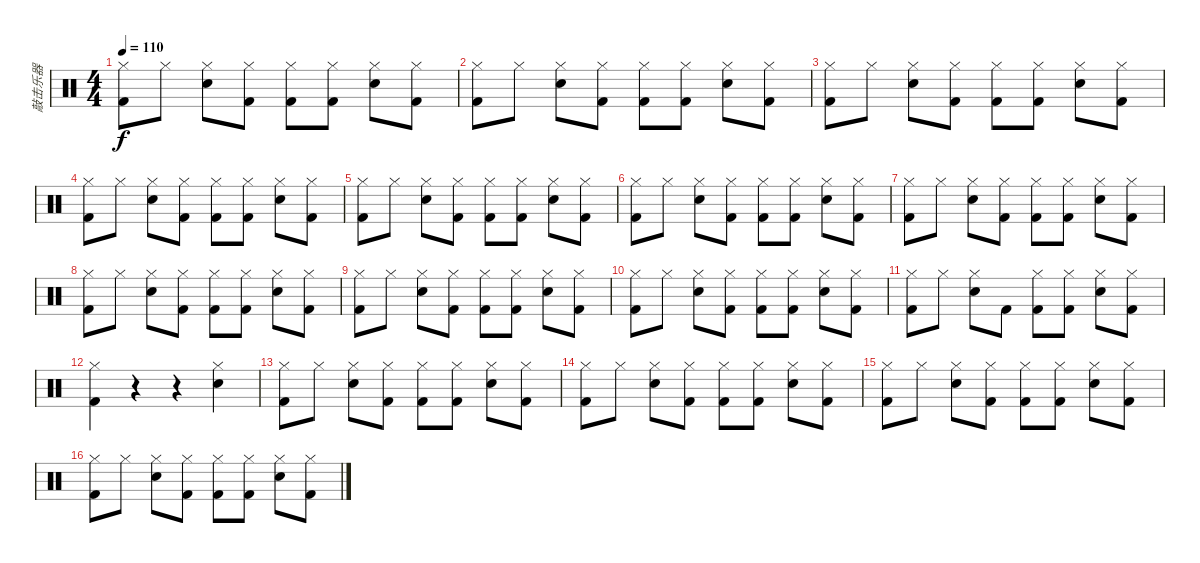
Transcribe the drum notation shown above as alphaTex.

\track ("敲击乐器" "敲击乐器") {instrument percussion}
\staff {score}
\articulation defaults
\ts (4 4)
\tempo 110
\clef neutral
\ks c
("Hi-Hat (closed)" "Kick (hit) 2").8{dy f} "Hi-Hat (closed)".8 ("Electric Snare (hit)" "Hi-Hat (closed)").8 ("Hi-Hat (closed)" "Kick (hit) 2").8 ("Kick (hit) 2" "Hi-Hat (closed)").8 ("Kick (hit) 2" "Hi-Hat (closed)").8 ("Electric Snare (hit)" "Hi-Hat (closed)").8 ("Hi-Hat (closed)" "Kick (hit) 2").8 |
("Hi-Hat (closed)" "Kick (hit) 2").8 "Hi-Hat (closed)".8 ("Hi-Hat (closed)" "Electric Snare (hit)").8 ("Kick (hit) 2" "Hi-Hat (closed)").8 ("Kick (hit) 2" "Hi-Hat (closed)").8 ("Kick (hit) 2" "Hi-Hat (closed)").8 ("Hi-Hat (closed)" "Electric Snare (hit)").8 ("Kick (hit) 2" "Hi-Hat (closed)").8 |
("Hi-Hat (closed)" "Kick (hit) 2").8 "Hi-Hat (closed)".8 ("Electric Snare (hit)" "Hi-Hat (closed)").8 ("Hi-Hat (closed)" "Kick (hit) 2").8 ("Kick (hit) 2" "Hi-Hat (closed)").8 ("Kick (hit) 2" "Hi-Hat (closed)").8 ("Electric Snare (hit)" "Hi-Hat (closed)").8 ("Hi-Hat (closed)" "Kick (hit) 2").8 |
("Hi-Hat (closed)" "Kick (hit) 2").8 "Hi-Hat (closed)".8 ("Hi-Hat (closed)" "Electric Snare (hit)").8 ("Kick (hit) 2" "Hi-Hat (closed)").8 ("Hi-Hat (closed)" "Kick (hit) 2").8 ("Kick (hit) 2" "Hi-Hat (closed)").8 ("Hi-Hat (closed)" "Electric Snare (hit)").8 ("Kick (hit) 2" "Hi-Hat (closed)").8 |
("Hi-Hat (closed)" "Kick (hit) 2").8 "Hi-Hat (closed)".8 ("Electric Snare (hit)" "Hi-Hat (closed)").8 ("Hi-Hat (closed)" "Kick (hit) 2").8 ("Kick (hit) 2" "Hi-Hat (closed)").8 ("Hi-Hat (closed)" "Kick (hit) 2").8 ("Electric Snare (hit)" "Hi-Hat (closed)").8 ("Hi-Hat (closed)" "Kick (hit) 2").8 |
("Kick (hit) 2" "Hi-Hat (closed)").8 "Hi-Hat (closed)".8 ("Hi-Hat (closed)" "Electric Snare (hit)").8 ("Kick (hit) 2" "Hi-Hat (closed)").8 ("Hi-Hat (closed)" "Kick (hit) 2").8 ("Kick (hit) 2" "Hi-Hat (closed)").8 ("Hi-Hat (closed)" "Electric Snare (hit)").8 ("Kick (hit) 2" "Hi-Hat (closed)").8 |
("Hi-Hat (closed)" "Kick (hit) 2").8 "Hi-Hat (closed)".8 ("Electric Snare (hit)" "Hi-Hat (closed)").8 ("Hi-Hat (closed)" "Kick (hit) 2").8 ("Kick (hit) 2" "Hi-Hat (closed)").8 ("Kick (hit) 2" "Hi-Hat (closed)").8 ("Electric Snare (hit)" "Hi-Hat (closed)").8 ("Hi-Hat (closed)" "Kick (hit) 2").8 |
("Hi-Hat (closed)" "Kick (hit) 2").8 "Hi-Hat (closed)".8 ("Electric Snare (hit)" "Hi-Hat (closed)").8 ("Hi-Hat (closed)" "Kick (hit) 2").8 ("Kick (hit) 2" "Hi-Hat (closed)").8 ("Hi-Hat (closed)" "Kick (hit) 2").8 ("Electric Snare (hit)" "Hi-Hat (closed)").8 ("Hi-Hat (closed)" "Kick (hit) 2").8 |
("Kick (hit) 2" "Hi-Hat (closed)").8 "Hi-Hat (closed)".8 ("Hi-Hat (closed)" "Electric Snare (hit)").8 ("Kick (hit) 2" "Hi-Hat (closed)").8 ("Hi-Hat (closed)" "Kick (hit) 2").8 ("Hi-Hat (closed)" "Kick (hit) 2").8 ("Hi-Hat (closed)" "Electric Snare (hit)").8 ("Kick (hit) 2" "Hi-Hat (closed)").8 |
("Hi-Hat (closed)" "Kick (hit) 2").8 "Hi-Hat (closed)".8 ("Hi-Hat (closed)" "Electric Snare (hit)").8 ("Kick (hit) 2" "Hi-Hat (closed)").8 ("Hi-Hat (closed)" "Kick (hit) 2").8 ("Kick (hit) 2" "Hi-Hat (closed)").8 ("Hi-Hat (closed)" "Electric Snare (hit)").8 ("Kick (hit) 2" "Hi-Hat (closed)").8 |
("Hi-Hat (closed)" "Kick (hit) 2").8 "Hi-Hat (closed)".8 ("Electric Snare (hit)" "Hi-Hat (closed)").8 "Kick (hit) 2".8 ("Kick (hit) 2" "Hi-Hat (closed)").8 ("Hi-Hat (closed)" "Kick (hit) 2").8 ("Hi-Hat (closed)" "Electric Snare (hit)").8 ("Kick (hit) 2" "Hi-Hat (closed)").8 |
("Hi-Hat (closed)" "Kick (hit) 2").4 r.4 r.4 ("Hi-Hat (closed)" "Electric Snare (hit)").4 |
("Hi-Hat (closed)" "Kick (hit) 2").8 "Hi-Hat (closed)".8 ("Electric Snare (hit)" "Hi-Hat (closed)").8 ("Hi-Hat (closed)" "Kick (hit) 2").8 ("Hi-Hat (closed)" "Kick (hit) 2").8 ("Hi-Hat (closed)" "Kick (hit) 2").8 ("Electric Snare (hit)" "Hi-Hat (closed)").8 ("Hi-Hat (closed)" "Kick (hit) 2").8 |
("Kick (hit) 2" "Hi-Hat (closed)").8 "Hi-Hat (closed)".8 ("Hi-Hat (closed)" "Electric Snare (hit)").8 ("Kick (hit) 2" "Hi-Hat (closed)").8 ("Kick (hit) 2" "Hi-Hat (closed)").8 ("Kick (hit) 2" "Hi-Hat (closed)").8 ("Hi-Hat (closed)" "Electric Snare (hit)").8 ("Kick (hit) 2" "Hi-Hat (closed)").8 |
("Hi-Hat (closed)" "Kick (hit) 2").8 "Hi-Hat (closed)".8 ("Electric Snare (hit)" "Hi-Hat (closed)").8 ("Hi-Hat (closed)" "Kick (hit) 2").8 ("Kick (hit) 2" "Hi-Hat (closed)").8 ("Kick (hit) 2" "Hi-Hat (closed)").8 ("Electric Snare (hit)" "Hi-Hat (closed)").8 ("Hi-Hat (closed)" "Kick (hit) 2").8 |
("Kick (hit) 2" "Hi-Hat (closed)").8 "Hi-Hat (closed)".8 ("Hi-Hat (closed)" "Electric Snare (hit)").8 ("Kick (hit) 2" "Hi-Hat (closed)").8 ("Kick (hit) 2" "Hi-Hat (closed)").8 ("Kick (hit) 2" "Hi-Hat (closed)").8 ("Hi-Hat (closed)" "Electric Snare (hit)").8 ("Kick (hit) 2" "Hi-Hat (closed)").8
